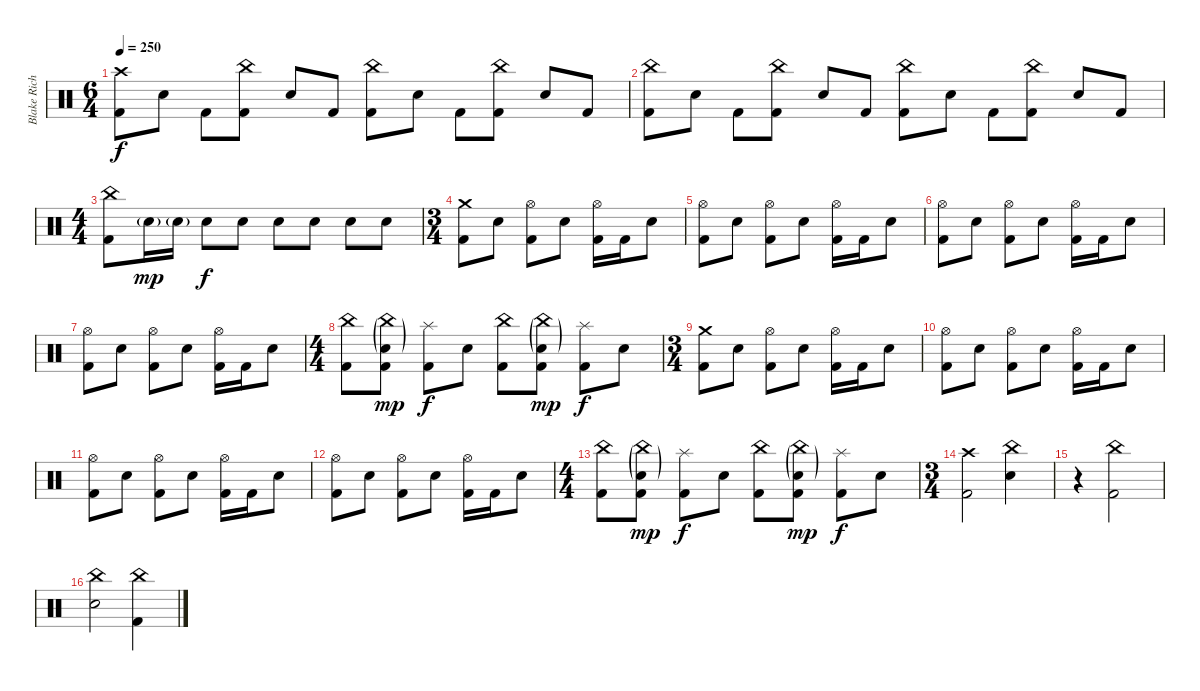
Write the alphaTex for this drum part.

\track ("Blake Richardson - Drums" "Blake Rich") {instrument percussion}
\staff {score}
\articulation defaults
\ts (6 4)
\tempo 250
\clef neutral
\ks c
("Crash high (hit)" "Kick (hit) 2").8{dy f} "Electric Snare (hit)".8 "Kick (hit) 2".8 ("China (hit)" "Kick (hit) 2").8 "Electric Snare (hit)".8 "Kick (hit) 2".8 ("China (hit)" "Kick (hit) 2").8 "Electric Snare (hit)".8 "Kick (hit) 2".8 ("China (hit)" "Kick (hit) 2").8 "Electric Snare (hit)".8 "Kick (hit) 2".8 |
("China (hit)" "Kick (hit) 2").8 "Electric Snare (hit)".8 "Kick (hit) 2".8 ("China (hit)" "Kick (hit) 2").8 "Electric Snare (hit)".8 "Kick (hit) 2".8 ("China (hit)" "Kick (hit) 2").8 "Electric Snare (hit)".8 "Kick (hit) 2".8 ("China (hit)" "Kick (hit) 2").8 "Electric Snare (hit)".8 "Kick (hit) 2".8 |
\ts (4 4)
("China (hit)" "Kick (hit) 2").8 "Electric Snare (hit)"{g}.16{dy mp} "Electric Snare (hit)"{g}.16 "Electric Snare (hit)".8{dy f} "Electric Snare (hit)".8 "Electric Snare (hit)".8 "Electric Snare (hit)".8 "Electric Snare (hit)".8 "Electric Snare (hit)".8 |
\ts (3 4)
("Crash medium (hit)" "Kick (hit) 2").8 "Electric Snare (hit)".8 ("Hi-Hat (open)" "Kick (hit) 2").8 "Electric Snare (hit)".8 ("Hi-Hat (open)" "Kick (hit) 2").16 "Kick (hit) 2".16 "Electric Snare (hit)".8 |
("Hi-Hat (open)" "Kick (hit) 2").8 "Electric Snare (hit)".8 ("Hi-Hat (open)" "Kick (hit) 2").8 "Electric Snare (hit)".8 ("Hi-Hat (open)" "Kick (hit) 2").16 "Kick (hit) 2".16 "Electric Snare (hit)".8 |
("Hi-Hat (open)" "Kick (hit) 2").8 "Electric Snare (hit)".8 ("Hi-Hat (open)" "Kick (hit) 2").8 "Electric Snare (hit)".8 ("Hi-Hat (open)" "Kick (hit) 2").16 "Kick (hit) 2".16 "Electric Snare (hit)".8 |
("Hi-Hat (open)" "Kick (hit) 2").8 "Electric Snare (hit)".8 ("Hi-Hat (open)" "Kick (hit) 2").8 "Electric Snare (hit)".8 ("Hi-Hat (open)" "Kick (hit) 2").16 "Kick (hit) 2".16 "Electric Snare (hit)".8 |
\ts (4 4)
("China (hit)" "Kick (hit) 2").8 ("China (hit)"{g} "Electric Snare (hit)"{g} "Kick (hit) 2").8{dy mp} ("Splash (hit)" "Kick (hit) 2").8{dy f} "Electric Snare (hit)".8 ("China (hit)" "Kick (hit) 2").8 ("China (hit)"{g} "Electric Snare (hit)"{g} "Kick (hit) 2").8{dy mp} ("Splash (hit)" "Kick (hit) 2").8{dy f} "Electric Snare (hit)".8 |
\ts (3 4)
("Crash medium (hit)" "Kick (hit) 2").8 "Electric Snare (hit)".8 ("Hi-Hat (open)" "Kick (hit) 2").8 "Electric Snare (hit)".8 ("Hi-Hat (open)" "Kick (hit) 2").16 "Kick (hit) 2".16 "Electric Snare (hit)".8 |
("Hi-Hat (open)" "Kick (hit) 2").8 "Electric Snare (hit)".8 ("Hi-Hat (open)" "Kick (hit) 2").8 "Electric Snare (hit)".8 ("Hi-Hat (open)" "Kick (hit) 2").16 "Kick (hit) 2".16 "Electric Snare (hit)".8 |
("Hi-Hat (open)" "Kick (hit) 2").8 "Electric Snare (hit)".8 ("Hi-Hat (open)" "Kick (hit) 2").8 "Electric Snare (hit)".8 ("Hi-Hat (open)" "Kick (hit) 2").16 "Kick (hit) 2".16 "Electric Snare (hit)".8 |
("Hi-Hat (open)" "Kick (hit) 2").8 "Electric Snare (hit)".8 ("Hi-Hat (open)" "Kick (hit) 2").8 "Electric Snare (hit)".8 ("Hi-Hat (open)" "Kick (hit) 2").16 "Kick (hit) 2".16 "Electric Snare (hit)".8 |
\ts (4 4)
("China (hit)" "Kick (hit) 2").8 ("China (hit)"{g} "Electric Snare (hit)"{g} "Kick (hit) 2").8{dy mp} ("Splash (hit)" "Kick (hit) 2").8{dy f} "Electric Snare (hit)".8 ("China (hit)" "Kick (hit) 2").8 ("China (hit)"{g} "Electric Snare (hit)"{g} "Kick (hit) 2").8{dy mp} ("Splash (hit)" "Kick (hit) 2").8{dy f} "Electric Snare (hit)".8 |
\ts (3 4)
("Crash high (hit)" "Kick (hit) 2").2 ("China (hit)" "Electric Snare (hit)").4 |
r.4 ("China (hit)" "Kick (hit) 2").2 |
("China (hit)" "Electric Snare (hit)").2 ("China (hit)" "Kick (hit) 2").4
